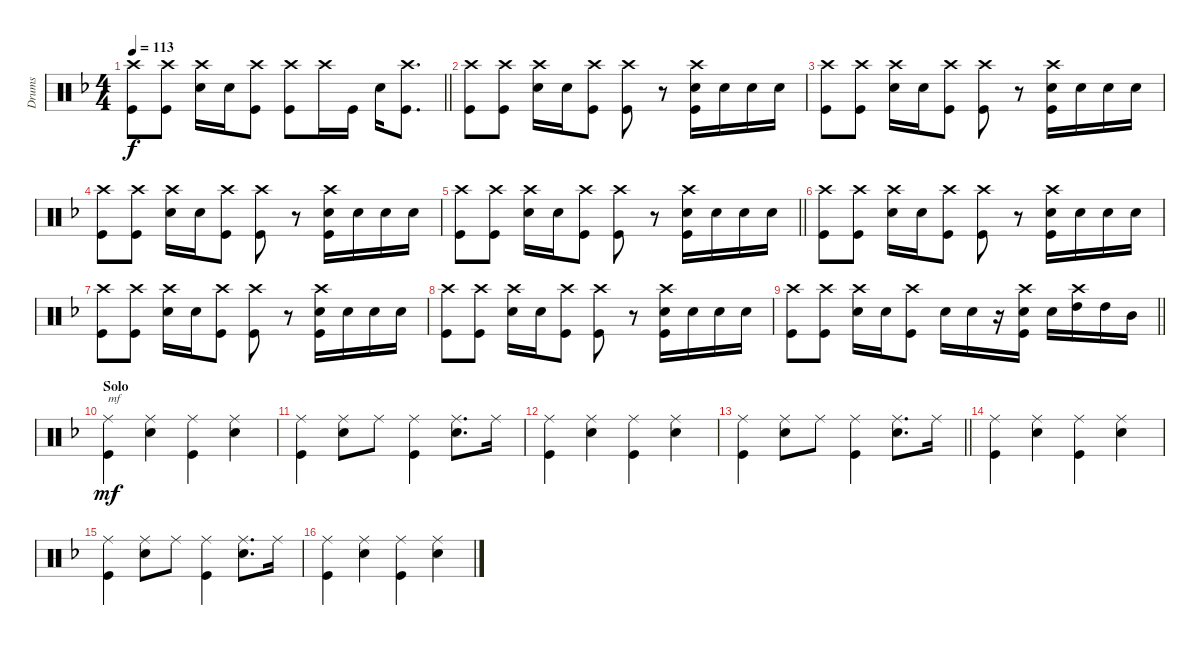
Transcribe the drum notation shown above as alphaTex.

\track ("Drums" "Drums") {instrument percussion}
\staff {score}
\articulation defaults
\ts (4 4)
\tempo 113
\clef neutral
\barLineRight lightlight
\ks dminor
("Crash high (hit)" "Kick (hit)").8{dy f} ("Crash high (hit)" "Kick (hit)").8 ("Crash high (hit)" "Electric Snare (hit)").16 "Electric Snare (hit)".16 ("Crash high (hit)" "Kick (hit)").8 ("Crash high (hit)" "Kick (hit)").8 "Crash high (hit)".16 "Kick (hit)".16 "Electric Snare (hit)".16 ("Crash high (hit)" "Kick (hit)").8{d} |
\section ("" "")
("Crash high (hit)" "Kick (hit)").8 ("Crash high (hit)" "Kick (hit)").8 ("Crash high (hit)" "Electric Snare (hit)").16 "Electric Snare (hit)".16 ("Crash high (hit)" "Kick (hit)").8 ("Crash high (hit)" "Kick (hit)").8 r.8 ("Crash high (hit)" "Electric Snare (hit)" "Kick (hit)").16 "Electric Snare (hit)".16 "Electric Snare (hit)".16 "Electric Snare (hit)".16 |
("Crash high (hit)" "Kick (hit)").8 ("Crash high (hit)" "Kick (hit)").8 ("Crash high (hit)" "Electric Snare (hit)").16 "Electric Snare (hit)".16 ("Crash high (hit)" "Kick (hit)").8 ("Crash high (hit)" "Kick (hit)").8 r.8 ("Crash high (hit)" "Electric Snare (hit)" "Kick (hit)").16 "Electric Snare (hit)".16 "Electric Snare (hit)".16 "Electric Snare (hit)".16 |
("Crash high (hit)" "Kick (hit)").8 ("Crash high (hit)" "Kick (hit)").8 ("Crash high (hit)" "Electric Snare (hit)").16 "Electric Snare (hit)".16 ("Crash high (hit)" "Kick (hit)").8 ("Crash high (hit)" "Kick (hit)").8 r.8 ("Crash high (hit)" "Electric Snare (hit)" "Kick (hit)").16 "Electric Snare (hit)".16 "Electric Snare (hit)".16 "Electric Snare (hit)".16 |
\barLineRight lightlight
("Crash high (hit)" "Kick (hit)").8 ("Crash high (hit)" "Kick (hit)").8 ("Crash high (hit)" "Electric Snare (hit)").16 "Electric Snare (hit)".16 ("Crash high (hit)" "Kick (hit)").8 ("Crash high (hit)" "Kick (hit)").8 r.8 ("Crash high (hit)" "Electric Snare (hit)" "Kick (hit)").16 "Electric Snare (hit)".16 "Electric Snare (hit)".16 "Electric Snare (hit)".16 |
\section ("" "")
("Crash high (hit)" "Kick (hit)").8 ("Crash high (hit)" "Kick (hit)").8 ("Crash high (hit)" "Electric Snare (hit)").16 "Electric Snare (hit)".16 ("Crash high (hit)" "Kick (hit)").8 ("Crash high (hit)" "Kick (hit)").8 r.8 ("Crash high (hit)" "Electric Snare (hit)" "Kick (hit)").16 "Electric Snare (hit)".16 "Electric Snare (hit)".16 "Electric Snare (hit)".16 |
("Crash high (hit)" "Kick (hit)").8 ("Crash high (hit)" "Kick (hit)").8 ("Crash high (hit)" "Electric Snare (hit)").16 "Electric Snare (hit)".16 ("Crash high (hit)" "Kick (hit)").8 ("Crash high (hit)" "Kick (hit)").8 r.8 ("Crash high (hit)" "Electric Snare (hit)" "Kick (hit)").16 "Electric Snare (hit)".16 "Electric Snare (hit)".16 "Electric Snare (hit)".16 |
("Crash high (hit)" "Kick (hit)").8 ("Crash high (hit)" "Kick (hit)").8 ("Crash high (hit)" "Electric Snare (hit)").16 "Electric Snare (hit)".16 ("Crash high (hit)" "Kick (hit)").8 ("Crash high (hit)" "Kick (hit)").8 r.8 ("Crash high (hit)" "Electric Snare (hit)" "Kick (hit)").16 "Electric Snare (hit)".16 "Electric Snare (hit)".16 "Electric Snare (hit)".16 |
\barLineRight lightlight
("Crash high (hit)" "Kick (hit)").8 ("Crash high (hit)" "Kick (hit)").8 ("Crash high (hit)" "Electric Snare (hit)").16 "Electric Snare (hit)".16 ("Crash high (hit)" "Kick (hit)").8 "Electric Snare (hit)".16 "Electric Snare (hit)".16 r.16 ("Crash high (hit)" "Electric Snare (hit)" "Kick (hit)").16 "Electric Snare (hit)".16 ("Crash high (hit)" "High Tom (hit)").16 "High Tom (hit)".16 "Mid Tom (hit)".16 |
\section ("" "Solo")
("Ride (middle)" "Kick (hit)").4{txt "mf" dy mf} ("Ride (middle)" "Electric Snare (hit)").4 ("Ride (middle)" "Kick (hit)").4 ("Ride (middle)" "Electric Snare (hit)").4 |
("Ride (middle)" "Kick (hit)").4 ("Ride (middle)" "Electric Snare (hit)").8 "Ride (middle)".8 ("Ride (middle)" "Kick (hit)").4 ("Ride (middle)" "Electric Snare (hit)").8{d} "Ride (middle)".16 |
("Ride (middle)" "Kick (hit)").4 ("Ride (middle)" "Electric Snare (hit)").4 ("Ride (middle)" "Kick (hit)").4 ("Ride (middle)" "Electric Snare (hit)").4 |
\barLineRight lightlight
("Ride (middle)" "Kick (hit)").4 ("Ride (middle)" "Electric Snare (hit)").8 "Ride (middle)".8 ("Ride (middle)" "Kick (hit)").4 ("Ride (middle)" "Electric Snare (hit)").8{d} "Ride (middle)".16 |
\section ("" "")
("Ride (middle)" "Kick (hit)").4 ("Ride (middle)" "Electric Snare (hit)").4 ("Ride (middle)" "Kick (hit)").4 ("Ride (middle)" "Electric Snare (hit)").4 |
("Ride (middle)" "Kick (hit)").4 ("Ride (middle)" "Electric Snare (hit)").8 "Ride (middle)".8 ("Ride (middle)" "Kick (hit)").4 ("Ride (middle)" "Electric Snare (hit)").8{d} "Ride (middle)".16 |
("Ride (middle)" "Kick (hit)").4 ("Ride (middle)" "Electric Snare (hit)").4 ("Ride (middle)" "Kick (hit)").4 ("Ride (middle)" "Electric Snare (hit)").4
